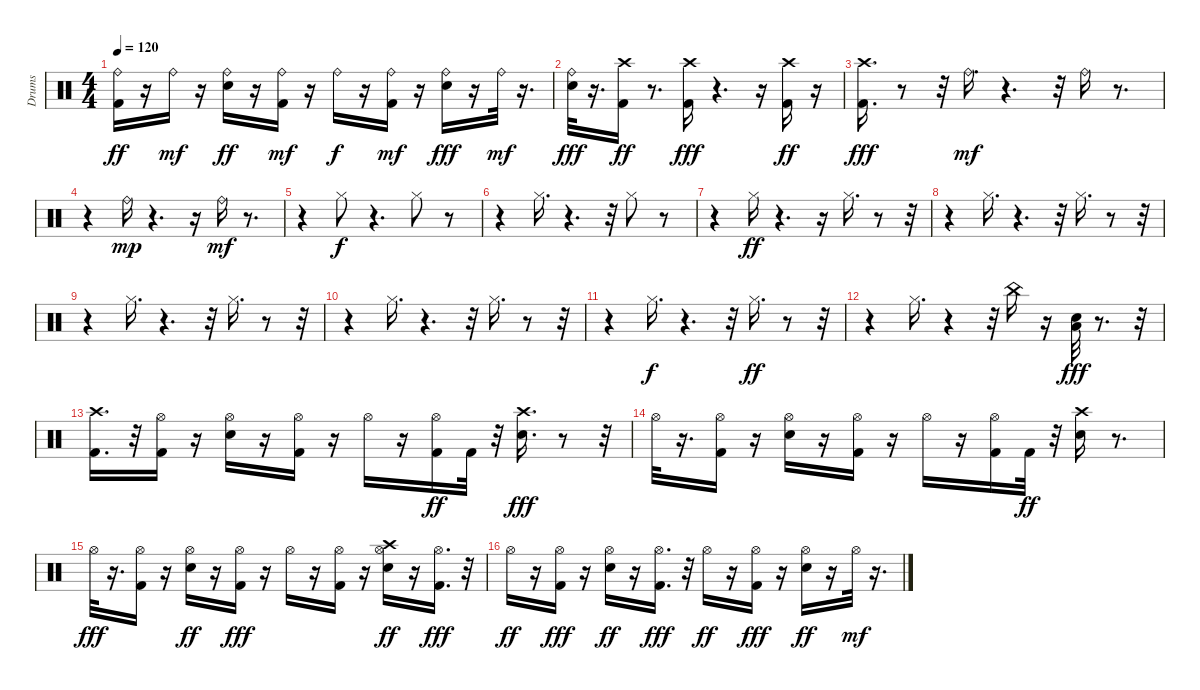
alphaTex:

\track ("Drums" "Drums") {instrument percussion}
\staff {score}
\articulation defaults
\ts (4 4)
\tempo 120
\clef neutral
\ks c
("Kick (hit) 2" "Ride (bell)").16{dy ff} r.16 "Ride (bell)".16{dy mf} r.16 ("Electric Snare (hit)" "Ride (bell)").16{dy ff} r.16 ("Kick (hit) 2" "Ride (bell)").16{dy mf} r.16 "Ride (bell)".16{dy f} r.16 ("Kick (hit) 2" "Ride (bell)").16{dy mf} r.16 ("Electric Snare (hit)" "Ride (bell)").16{dy fff} r.16 "Ride (bell)".32{dy mf} r.16{d} |
("Electric Snare (hit)" "Ride (bell)").32{dy fff} r.16{d} ("Kick (hit) 2" "Crash high (hit)").16{dy ff} r.8{d} ("Kick (hit) 2" "Crash high (hit)").16{dy fff} r.4{d} r.16 ("Kick (hit) 2" "Crash high (hit)").16{dy ff} r.16 |
("Kick (hit) 2" "Crash high (hit)").16{d dy fff} r.8 r.32 "Ride (bell)".16{d dy mf} r.4{d} r.32 "Ride (bell)".16 r.8{d} |
r.4 "Ride (bell)".16{dy mp} r.4{d} r.16 "Ride (bell)".16{dy mf} r.8{d} |
r.4 "Hi-Hat (closed)".8{dy f} r.4{d} "Hi-Hat (closed)".8 r.8 |
r.4 "Hi-Hat (closed)".16{d} r.4{d} r.32 "Hi-Hat (closed)".8 r.8 |
r.4 "Hi-Hat (closed)".16{dy ff} r.4{d} r.16 "Hi-Hat (closed)".16{d} r.8 r.32 |
r.4 "Hi-Hat (closed)".16{d} r.4{d} r.32 "Hi-Hat (closed)".16{d} r.8 r.32 |
r.4 "Hi-Hat (closed)".16{d} r.4{d} r.32 "Hi-Hat (closed)".16{d} r.8 r.32 |
r.4 "Hi-Hat (closed)".16{d} r.4{d} r.32 "Hi-Hat (closed)".16{d} r.8 r.32 |
r.4 "Hi-Hat (closed)".16{d dy f} r.4{d} r.32 "Hi-Hat (closed)".16{d dy ff} r.8 r.32 |
r.4 "Hi-Hat (closed)".16{d} r.4 r.32 "China (hit)".16 r.16 ("Low Floor Tom (hit)" "Electric Snare (hit)").32{dy fff} r.8{d} r.32 |
("Crash high (hit)" "Kick (hit) 2").16{d} r.32 ("Hi-Hat (open)" "Kick (hit) 2").16 r.16 ("Hi-Hat (open)" "Electric Snare (hit)").16 r.16 ("Hi-Hat (open)" "Kick (hit) 2").16 r.16 "Hi-Hat (open)".16 r.16 ("Hi-Hat (open)" "Kick (hit) 2").16{dy ff} "Kick (hit) 2".32 r.32 ("Crash high (hit)" "Electric Snare (hit)").16{d dy fff} r.8 r.32 |
"Hi-Hat (open)".32 r.16{d} ("Hi-Hat (open)" "Kick (hit) 2").16 r.16 ("Hi-Hat (open)" "Electric Snare (hit)").16 r.16 ("Hi-Hat (open)" "Kick (hit) 2").16 r.16 "Hi-Hat (open)".16 r.16 ("Hi-Hat (open)" "Kick (hit) 2").16 "Kick (hit) 2".32{dy ff} r.32 ("Crash high (hit)" "Electric Snare (hit)").16 r.8{d} |
"Hi-Hat (open)".32{dy fff} r.16{d} ("Hi-Hat (open)" "Kick (hit) 2").16 r.16 ("Hi-Hat (open)" "Electric Snare (hit)").16{dy ff} r.16 ("Hi-Hat (open)" "Kick (hit) 2").16{dy fff} r.16 "Hi-Hat (open)".16 r.16 ("Hi-Hat (open)" "Kick (hit) 2").16 r.16 ("Crash high (hit)" "Hi-Hat (open)" "Electric Snare (hit)").16{dy ff} r.16 ("Hi-Hat (open)" "Kick (hit) 2").16{d dy fff} r.32 |
"Hi-Hat (open)".16{dy ff} r.16 ("Hi-Hat (open)" "Kick (hit) 2").16{dy fff} r.16 ("Hi-Hat (open)" "Electric Snare (hit)").16{dy ff} r.16 ("Hi-Hat (open)" "Kick (hit) 2").16{d dy fff} r.32 "Hi-Hat (open)".16{dy ff} r.16 ("Hi-Hat (open)" "Kick (hit) 2").16{dy fff} r.16 ("Hi-Hat (open)" "Electric Snare (hit)").16{dy ff} r.16 "Hi-Hat (open)".32{dy mf} r.16{d}
